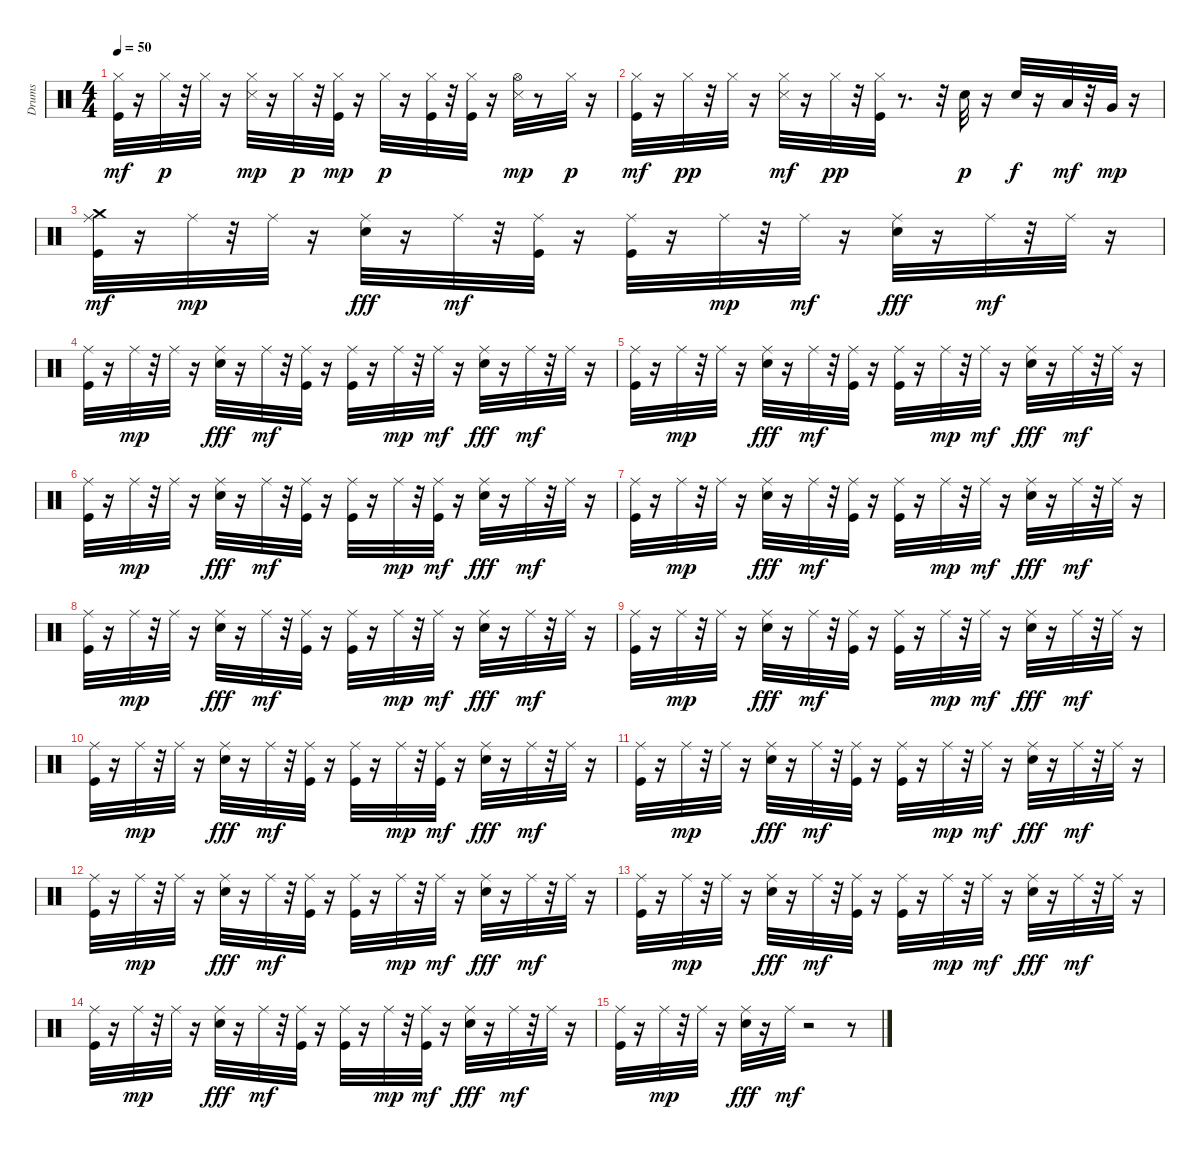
\track ("Drums" "Drums") {instrument percussion}
\staff {score}
\articulation defaults
\ts (4 4)
\tempo 50
\clef neutral
\ks c
("Kick (hit)" "Hi-Hat (closed)").32{dy mf} r.16 "Hi-Hat (closed)".32{dy p} r.32 "Hi-Hat (closed)".32 r.16 ("Snare (side stick) 3" "Hi-Hat (closed)").32{dy mp} r.16 "Hi-Hat (closed)".32{dy p} r.32 ("Kick (hit)" "Hi-Hat (closed)").32{dy mp} r.16 "Hi-Hat (closed)".32{dy p} r.16 ("Kick (hit)" "Hi-Hat (closed)").32 r.32 ("Kick (hit)" "Hi-Hat (closed)").32 r.16 ("Snare (side stick) 3" "Hi-Hat (open)").32{dy mp} r.8 "Hi-Hat (closed)".32{dy p} r.16 |
("Kick (hit)" "Hi-Hat (closed)").32{dy mf} r.16 "Hi-Hat (closed)".32{dy pp} r.32 "Hi-Hat (closed)".32 r.16 ("Snare (side stick) 3" "Hi-Hat (closed)").32{dy mf} r.16 "Hi-Hat (closed)".32{dy pp} r.32 ("Kick (hit)" "Hi-Hat (closed)").32 r.8{d} r.32 "Snare (hit) 2".32{dy p} r.16 "Snare (hit) 2".32{dy f} r.16 "Low Tom (hit)".32{dy mf} r.32 "Very Low Tom (hit)".32{dy mp} r.16 |
("Crash medium (hit)" "Kick (hit)" "Ride (middle)").32{dy mf} r.16 "Ride (middle)".32{dy mp} r.32 "Ride (middle)".32 r.16 ("Snare (hit) 2" "Ride (middle)").32{dy fff} r.16 "Ride (middle)".32{dy mf} r.32 ("Kick (hit)" "Ride (middle)").32 r.16 ("Kick (hit)" "Ride (middle)").32 r.16 "Ride (middle)".32{dy mp} r.32 "Ride (middle)".32{dy mf} r.16 ("Snare (hit) 2" "Ride (middle)").32{dy fff} r.16 "Ride (middle)".32{dy mf} r.32 "Ride (middle)".32 r.16 |
("Kick (hit)" "Ride (middle)").32 r.16 "Ride (middle)".32{dy mp} r.32 "Ride (middle)".32 r.16 ("Snare (hit) 2" "Ride (middle)").32{dy fff} r.16 "Ride (middle)".32{dy mf} r.32 ("Kick (hit)" "Ride (middle)").32 r.16 ("Kick (hit)" "Ride (middle)").32 r.16 "Ride (middle)".32{dy mp} r.32 "Ride (middle)".32{dy mf} r.16 ("Snare (hit) 2" "Ride (middle)").32{dy fff} r.16 "Ride (middle)".32{dy mf} r.32 "Ride (middle)".32 r.16 |
("Kick (hit)" "Ride (middle)").32 r.16 "Ride (middle)".32{dy mp} r.32 "Ride (middle)".32 r.16 ("Snare (hit) 2" "Ride (middle)").32{dy fff} r.16 "Ride (middle)".32{dy mf} r.32 ("Kick (hit)" "Ride (middle)").32 r.16 ("Kick (hit)" "Ride (middle)").32 r.16 "Ride (middle)".32{dy mp} r.32 "Ride (middle)".32{dy mf} r.16 ("Snare (hit) 2" "Ride (middle)").32{dy fff} r.16 "Ride (middle)".32{dy mf} r.32 "Ride (middle)".32 r.16 |
("Kick (hit)" "Ride (middle)").32 r.16 "Ride (middle)".32{dy mp} r.32 "Ride (middle)".32 r.16 ("Snare (hit) 2" "Ride (middle)").32{dy fff} r.16 "Ride (middle)".32{dy mf} r.32 ("Kick (hit)" "Ride (middle)").32 r.16 ("Kick (hit)" "Ride (middle)").32 r.16 "Ride (middle)".32{dy mp} r.32 ("Kick (hit)" "Ride (middle)").32{dy mf} r.16 ("Snare (hit) 2" "Ride (middle)").32{dy fff} r.16 "Ride (middle)".32{dy mf} r.32 "Ride (middle)".32 r.16 |
("Kick (hit)" "Ride (middle)").32 r.16 "Ride (middle)".32{dy mp} r.32 "Ride (middle)".32 r.16 ("Snare (hit) 2" "Ride (middle)").32{dy fff} r.16 "Ride (middle)".32{dy mf} r.32 ("Kick (hit)" "Ride (middle)").32 r.16 ("Kick (hit)" "Ride (middle)").32 r.16 "Ride (middle)".32{dy mp} r.32 "Ride (middle)".32{dy mf} r.16 ("Snare (hit) 2" "Ride (middle)").32{dy fff} r.16 "Ride (middle)".32{dy mf} r.32 "Ride (middle)".32 r.16 |
("Kick (hit)" "Ride (middle)").32 r.16 "Ride (middle)".32{dy mp} r.32 "Ride (middle)".32 r.16 ("Snare (hit) 2" "Ride (middle)").32{dy fff} r.16 "Ride (middle)".32{dy mf} r.32 ("Kick (hit)" "Ride (middle)").32 r.16 ("Kick (hit)" "Ride (middle)").32 r.16 "Ride (middle)".32{dy mp} r.32 "Ride (middle)".32{dy mf} r.16 ("Snare (hit) 2" "Ride (middle)").32{dy fff} r.16 "Ride (middle)".32{dy mf} r.32 "Ride (middle)".32 r.16 |
("Kick (hit)" "Ride (middle)").32 r.16 "Ride (middle)".32{dy mp} r.32 "Ride (middle)".32 r.16 ("Snare (hit) 2" "Ride (middle)").32{dy fff} r.16 "Ride (middle)".32{dy mf} r.32 ("Kick (hit)" "Ride (middle)").32 r.16 ("Kick (hit)" "Ride (middle)").32 r.16 "Ride (middle)".32{dy mp} r.32 "Ride (middle)".32{dy mf} r.16 ("Snare (hit) 2" "Ride (middle)").32{dy fff} r.16 "Ride (middle)".32{dy mf} r.32 "Ride (middle)".32 r.16 |
("Kick (hit)" "Ride (middle)").32 r.16 "Ride (middle)".32{dy mp} r.32 "Ride (middle)".32 r.16 ("Snare (hit) 2" "Ride (middle)").32{dy fff} r.16 "Ride (middle)".32{dy mf} r.32 ("Kick (hit)" "Ride (middle)").32 r.16 ("Kick (hit)" "Ride (middle)").32 r.16 "Ride (middle)".32{dy mp} r.32 ("Kick (hit)" "Ride (middle)").32{dy mf} r.16 ("Snare (hit) 2" "Ride (middle)").32{dy fff} r.16 "Ride (middle)".32{dy mf} r.32 "Ride (middle)".32 r.16 |
("Kick (hit)" "Ride (middle)").32 r.16 "Ride (middle)".32{dy mp} r.32 "Ride (middle)".32 r.16 ("Snare (hit) 2" "Ride (middle)").32{dy fff} r.16 "Ride (middle)".32{dy mf} r.32 ("Kick (hit)" "Ride (middle)").32 r.16 ("Kick (hit)" "Ride (middle)").32 r.16 "Ride (middle)".32{dy mp} r.32 "Ride (middle)".32{dy mf} r.16 ("Snare (hit) 2" "Ride (middle)").32{dy fff} r.16 "Ride (middle)".32{dy mf} r.32 "Ride (middle)".32 r.16 |
("Kick (hit)" "Ride (middle)").32 r.16 "Ride (middle)".32{dy mp} r.32 "Ride (middle)".32 r.16 ("Snare (hit) 2" "Ride (middle)").32{dy fff} r.16 "Ride (middle)".32{dy mf} r.32 ("Kick (hit)" "Ride (middle)").32 r.16 ("Kick (hit)" "Ride (middle)").32 r.16 "Ride (middle)".32{dy mp} r.32 "Ride (middle)".32{dy mf} r.16 ("Snare (hit) 2" "Ride (middle)").32{dy fff} r.16 "Ride (middle)".32{dy mf} r.32 "Ride (middle)".32 r.16 |
("Kick (hit)" "Ride (middle)").32 r.16 "Ride (middle)".32{dy mp} r.32 "Ride (middle)".32 r.16 ("Snare (hit) 2" "Ride (middle)").32{dy fff} r.16 "Ride (middle)".32{dy mf} r.32 ("Kick (hit)" "Ride (middle)").32 r.16 ("Kick (hit)" "Ride (middle)").32 r.16 "Ride (middle)".32{dy mp} r.32 "Ride (middle)".32{dy mf} r.16 ("Snare (hit) 2" "Ride (middle)").32{dy fff} r.16 "Ride (middle)".32{dy mf} r.32 "Ride (middle)".32 r.16 |
("Kick (hit)" "Ride (middle)").32 r.16 "Ride (middle)".32{dy mp} r.32 "Ride (middle)".32 r.16 ("Snare (hit) 2" "Ride (middle)").32{dy fff} r.16 "Ride (middle)".32{dy mf} r.32 ("Kick (hit)" "Ride (middle)").32 r.16 ("Kick (hit)" "Ride (middle)").32 r.16 "Ride (middle)".32{dy mp} r.32 ("Kick (hit)" "Ride (middle)").32{dy mf} r.16 ("Snare (hit) 2" "Ride (middle)").32{dy fff} r.16 "Ride (middle)".32{dy mf} r.32 "Ride (middle)".32 r.16 |
("Kick (hit)" "Ride (middle)").32 r.16 "Ride (middle)".32{dy mp} r.32 "Ride (middle)".32 r.16 ("Snare (hit) 2" "Ride (middle)").32{dy fff} r.16 "Ride (middle)".32{dy mf} r.2 r.8
